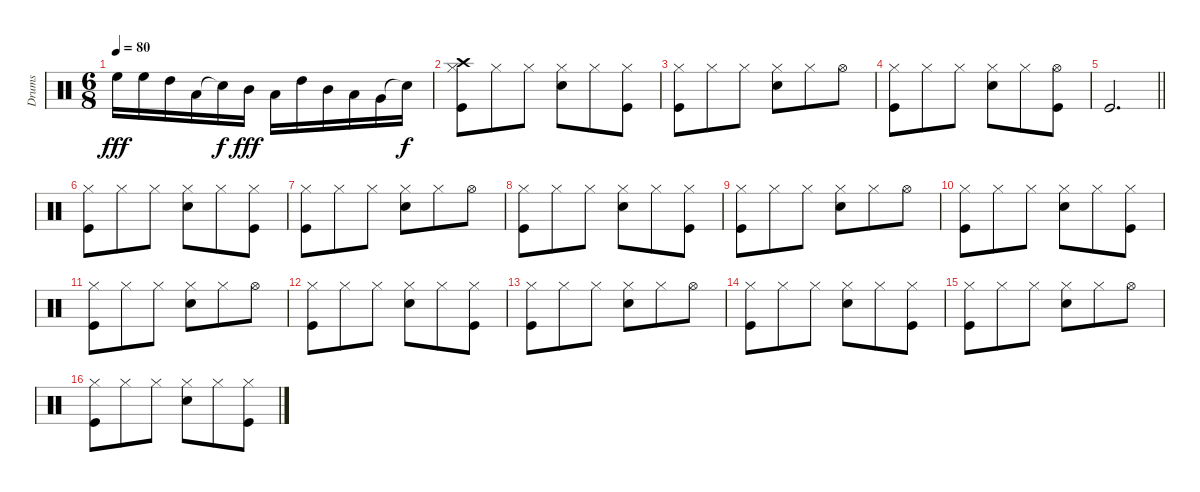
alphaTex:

\track ("Drums" "Drums") {instrument percussion}
\staff {score}
\articulation defaults
\ts (6 8)
\tempo 80
\clef neutral
\ks c "High Floor Tom (hit)".16{dy fff} "High Floor Tom (hit)".16 "High Tom (hit)".16 "Low Tom (hit)".16 "Snare (hit)"{t}.16{dy f} "Mid Tom (hit)".16{dy fff} "Low Tom (hit)".16 "High Tom (hit)".16 "Mid Tom (hit)".16 "Low Tom (hit)".16 "Very Low Tom (hit)".16 "Snare (hit)"{t}.16{dy f}
|
("Hi-Hat (closed)" "Kick (hit)" "Crash high (hit)").8 "Hi-Hat (closed)".8 "Hi-Hat (closed)".8 ("Hi-Hat (closed)" "Electric Snare (hit)").8 "Hi-Hat (closed)".8 ("Hi-Hat (closed)" "Kick (hit)").8 |
("Hi-Hat (closed)" "Kick (hit)").8 "Hi-Hat (closed)".8 "Hi-Hat (closed)".8 ("Hi-Hat (closed)" "Electric Snare (hit)").8 "Hi-Hat (closed)".8 "Hi-Hat (open)".8 |
("Hi-Hat (closed)" "Kick (hit)").8 "Hi-Hat (closed)".8 "Hi-Hat (closed)".8{txt ""} ("Hi-Hat (closed)" "Electric Snare (hit)").8 "Hi-Hat (closed)".8 ("Hi-Hat (open)" "Kick (hit)").8 |
\barLineRight lightlight "Kick (hit)".2{d}
|
("Hi-Hat (closed)" "Kick (hit)").8 "Hi-Hat (closed)".8 "Hi-Hat (closed)".8 ("Hi-Hat (closed)" "Electric Snare (hit)").8 "Hi-Hat (closed)".8 ("Hi-Hat (closed)" "Kick (hit)").8 |
("Hi-Hat (closed)" "Kick (hit)").8 "Hi-Hat (closed)".8 "Hi-Hat (closed)".8 ("Hi-Hat (closed)" "Electric Snare (hit)").8 "Hi-Hat (closed)".8 "Hi-Hat (open)".8 |
("Hi-Hat (closed)" "Kick (hit)").8 "Hi-Hat (closed)".8 "Hi-Hat (closed)".8 ("Hi-Hat (closed)" "Electric Snare (hit)").8 "Hi-Hat (closed)".8 ("Hi-Hat (closed)" "Kick (hit)").8 |
("Hi-Hat (closed)" "Kick (hit)").8 "Hi-Hat (closed)".8 "Hi-Hat (closed)".8 ("Hi-Hat (closed)" "Electric Snare (hit)").8 "Hi-Hat (closed)".8 "Hi-Hat (open)".8 |
("Hi-Hat (closed)" "Kick (hit)").8 "Hi-Hat (closed)".8 "Hi-Hat (closed)".8 ("Hi-Hat (closed)" "Electric Snare (hit)").8 "Hi-Hat (closed)".8 ("Hi-Hat (closed)" "Kick (hit)").8 |
("Hi-Hat (closed)" "Kick (hit)").8 "Hi-Hat (closed)".8 "Hi-Hat (closed)".8 ("Hi-Hat (closed)" "Electric Snare (hit)").8 "Hi-Hat (closed)".8 "Hi-Hat (open)".8 |
("Hi-Hat (closed)" "Kick (hit)").8 "Hi-Hat (closed)".8 "Hi-Hat (closed)".8 ("Hi-Hat (closed)" "Electric Snare (hit)").8 "Hi-Hat (closed)".8 ("Hi-Hat (closed)" "Kick (hit)").8 |
("Hi-Hat (closed)" "Kick (hit)").8 "Hi-Hat (closed)".8 "Hi-Hat (closed)".8 ("Hi-Hat (closed)" "Electric Snare (hit)").8 "Hi-Hat (closed)".8 "Hi-Hat (open)".8 |
("Hi-Hat (closed)" "Kick (hit)").8 "Hi-Hat (closed)".8 "Hi-Hat (closed)".8 ("Hi-Hat (closed)" "Electric Snare (hit)").8 "Hi-Hat (closed)".8 ("Hi-Hat (closed)" "Kick (hit)").8 |
("Hi-Hat (closed)" "Kick (hit)").8 "Hi-Hat (closed)".8 "Hi-Hat (closed)".8 ("Hi-Hat (closed)" "Electric Snare (hit)").8 "Hi-Hat (closed)".8 "Hi-Hat (open)".8 |
("Hi-Hat (closed)" "Kick (hit)").8 "Hi-Hat (closed)".8 "Hi-Hat (closed)".8 ("Hi-Hat (closed)" "Electric Snare (hit)").8 "Hi-Hat (closed)".8 ("Hi-Hat (closed)" "Kick (hit)").8
